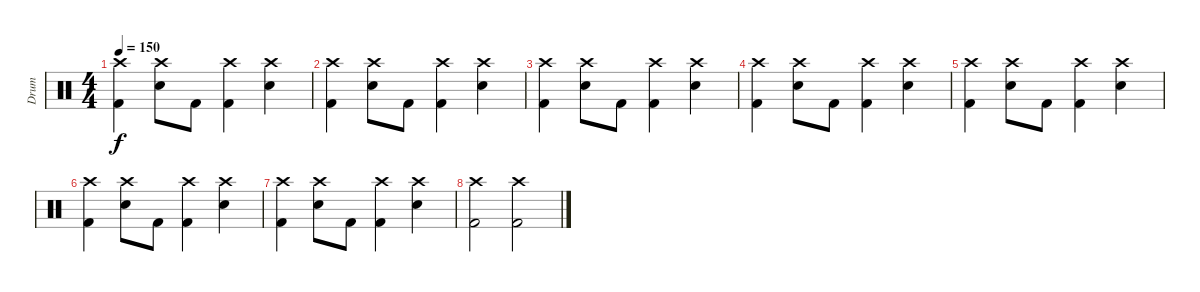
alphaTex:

\track ("Drum" "Drum") {instrument percussion}
\staff {score}
\articulation defaults
\ts (4 4)
\tempo 150
\clef neutral
\ks c
("Crash high (hit)" "Kick (hit) 2").4{dy f} ("Crash high (hit)" "Snare (hit) 2").8 "Kick (hit) 2".8 ("Crash high (hit)" "Kick (hit) 2").4 ("Crash high (hit)" "Snare (hit) 2").4 |
("Crash high (hit)" "Kick (hit) 2").4 ("Crash high (hit)" "Snare (hit) 2").8 "Kick (hit) 2".8 ("Crash high (hit)" "Kick (hit) 2").4 ("Crash high (hit)" "Snare (hit) 2").4 |
("Crash high (hit)" "Kick (hit) 2").4 ("Crash high (hit)" "Snare (hit) 2").8 "Kick (hit) 2".8 ("Crash high (hit)" "Kick (hit) 2").4 ("Crash high (hit)" "Snare (hit) 2").4 |
("Crash high (hit)" "Kick (hit) 2").4 ("Crash high (hit)" "Snare (hit) 2").8 "Kick (hit) 2".8 ("Crash high (hit)" "Kick (hit) 2").4 ("Crash high (hit)" "Snare (hit) 2").4 |
("Crash high (hit)" "Kick (hit) 2").4 ("Crash high (hit)" "Snare (hit) 2").8 "Kick (hit) 2".8 ("Crash high (hit)" "Kick (hit) 2").4 ("Crash high (hit)" "Snare (hit) 2").4 |
("Crash high (hit)" "Kick (hit) 2").4 ("Crash high (hit)" "Snare (hit) 2").8 "Kick (hit) 2".8 ("Crash high (hit)" "Kick (hit) 2").4 ("Crash high (hit)" "Snare (hit) 2").4 |
("Crash high (hit)" "Kick (hit) 2").4 ("Crash high (hit)" "Snare (hit) 2").8 "Kick (hit) 2".8 ("Crash high (hit)" "Kick (hit) 2").4 ("Crash high (hit)" "Snare (hit) 2").4 |
("Crash high (hit)" "Kick (hit) 2").2 ("Crash high (hit)" "Kick (hit) 2").2
